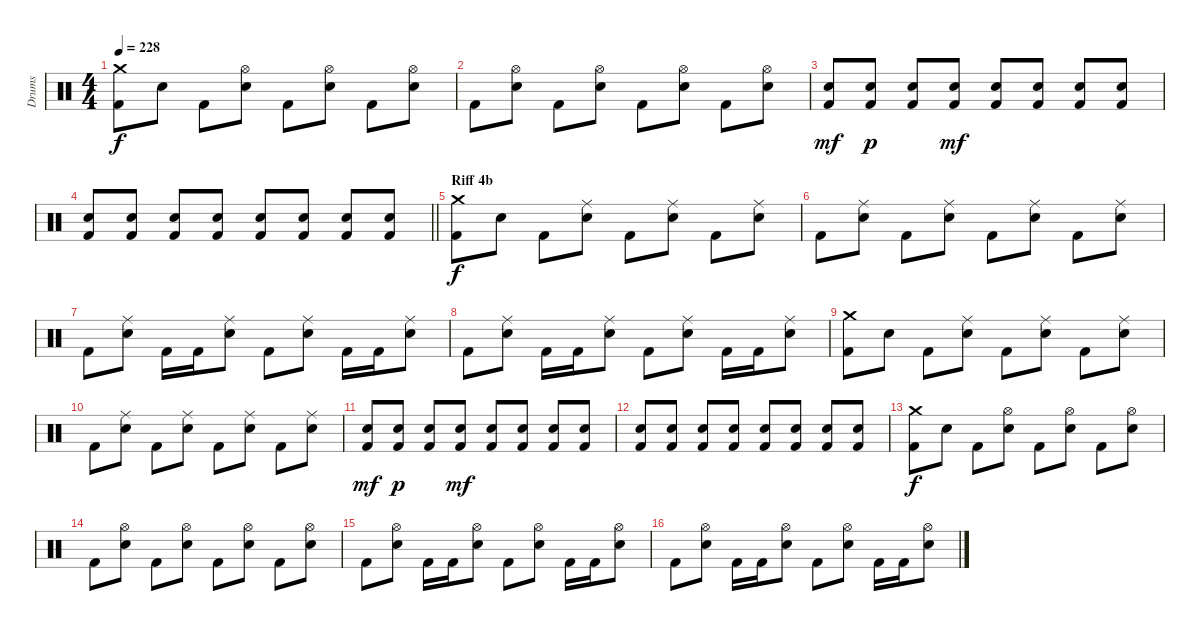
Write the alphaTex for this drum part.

\track ("Drums" "Drums") {instrument percussion}
\staff {score}
\articulation defaults
\ts (4 4)
\tempo 228
\clef neutral
\ks c
("Crash medium (hit)" "Kick (hit) 2").8{dy f} "Electric Snare (hit)".8 "Kick (hit) 2".8 ("Hi-Hat (open)" "Electric Snare (hit)").8 "Kick (hit) 2".8 ("Hi-Hat (open)" "Electric Snare (hit)").8 "Kick (hit) 2".8 ("Hi-Hat (open)" "Electric Snare (hit)").8 |
"Kick (hit) 2".8 ("Hi-Hat (open)" "Electric Snare (hit)").8 "Kick (hit) 2".8 ("Hi-Hat (open)" "Electric Snare (hit)").8 "Kick (hit) 2".8 ("Hi-Hat (open)" "Electric Snare (hit)").8 "Kick (hit) 2".8 ("Hi-Hat (open)" "Electric Snare (hit)").8 |
("Electric Snare (hit)" "Kick (hit) 2").8{dy mf} ("Electric Snare (hit)" "Kick (hit) 2").8{dy p} ("Electric Snare (hit)" "Kick (hit) 2").8 ("Electric Snare (hit)" "Kick (hit) 2").8{dy mf} ("Electric Snare (hit)" "Kick (hit) 2").8 ("Electric Snare (hit)" "Kick (hit) 2").8 ("Electric Snare (hit)" "Kick (hit) 2").8 ("Electric Snare (hit)" "Kick (hit) 2").8 |
\barLineRight lightlight
("Electric Snare (hit)" "Kick (hit) 2").8 ("Electric Snare (hit)" "Kick (hit) 2").8 ("Electric Snare (hit)" "Kick (hit) 2").8 ("Electric Snare (hit)" "Kick (hit) 2").8 ("Electric Snare (hit)" "Kick (hit) 2").8 ("Electric Snare (hit)" "Kick (hit) 2").8 ("Electric Snare (hit)" "Kick (hit) 2").8 ("Electric Snare (hit)" "Kick (hit) 2").8 |
\section ("" "Riff 4b")
("Crash medium (hit)" "Kick (hit) 2").8{dy f} "Electric Snare (hit)".8 "Kick (hit) 2".8 ("Ride (middle)" "Electric Snare (hit)").8 "Kick (hit) 2".8 ("Electric Snare (hit)" "Ride (middle)").8 "Kick (hit) 2".8 ("Electric Snare (hit)" "Ride (middle)").8 |
"Kick (hit) 2".8 ("Electric Snare (hit)" "Ride (middle)").8 "Kick (hit) 2".8 ("Electric Snare (hit)" "Ride (middle)").8 "Kick (hit) 2".8 ("Electric Snare (hit)" "Ride (middle)").8 "Kick (hit) 2".8 ("Electric Snare (hit)" "Ride (middle)").8 |
"Kick (hit) 2".8 ("Electric Snare (hit)" "Ride (middle)").8 "Kick (hit) 2".16 "Kick (hit) 2".16 ("Electric Snare (hit)" "Ride (middle)").8 "Kick (hit) 2".8 ("Electric Snare (hit)" "Ride (middle)").8 "Kick (hit) 2".16 "Kick (hit) 2".16 ("Electric Snare (hit)" "Ride (middle)").8 |
"Kick (hit) 2".8 ("Electric Snare (hit)" "Ride (middle)").8 "Kick (hit) 2".16 "Kick (hit) 2".16 ("Electric Snare (hit)" "Ride (middle)").8 "Kick (hit) 2".8 ("Electric Snare (hit)" "Ride (middle)").8 "Kick (hit) 2".16 "Kick (hit) 2".16 ("Electric Snare (hit)" "Ride (middle)").8 |
("Crash medium (hit)" "Kick (hit) 2").8 "Electric Snare (hit)".8 "Kick (hit) 2".8 ("Ride (middle)" "Electric Snare (hit)").8 "Kick (hit) 2".8 ("Electric Snare (hit)" "Ride (middle)").8 "Kick (hit) 2".8 ("Electric Snare (hit)" "Ride (middle)").8 |
"Kick (hit) 2".8 ("Electric Snare (hit)" "Ride (middle)").8 "Kick (hit) 2".8 ("Electric Snare (hit)" "Ride (middle)").8 "Kick (hit) 2".8 ("Electric Snare (hit)" "Ride (middle)").8 "Kick (hit) 2".8 ("Electric Snare (hit)" "Ride (middle)").8 |
("Electric Snare (hit)" "Kick (hit) 2").8{dy mf} ("Electric Snare (hit)" "Kick (hit) 2").8{dy p} ("Electric Snare (hit)" "Kick (hit) 2").8 ("Electric Snare (hit)" "Kick (hit) 2").8{dy mf} ("Electric Snare (hit)" "Kick (hit) 2").8 ("Electric Snare (hit)" "Kick (hit) 2").8 ("Electric Snare (hit)" "Kick (hit) 2").8 ("Electric Snare (hit)" "Kick (hit) 2").8 |
("Electric Snare (hit)" "Kick (hit) 2").8 ("Electric Snare (hit)" "Kick (hit) 2").8 ("Electric Snare (hit)" "Kick (hit) 2").8 ("Electric Snare (hit)" "Kick (hit) 2").8 ("Electric Snare (hit)" "Kick (hit) 2").8 ("Electric Snare (hit)" "Kick (hit) 2").8 ("Electric Snare (hit)" "Kick (hit) 2").8 ("Electric Snare (hit)" "Kick (hit) 2").8 |
("Crash medium (hit)" "Kick (hit) 2").8{dy f} "Electric Snare (hit)".8 "Kick (hit) 2".8 ("Electric Snare (hit)" "Hi-Hat (open)").8 "Kick (hit) 2".8 ("Electric Snare (hit)" "Hi-Hat (open)").8 "Kick (hit) 2".8 ("Electric Snare (hit)" "Hi-Hat (open)").8 |
"Kick (hit) 2".8 ("Electric Snare (hit)" "Hi-Hat (open)").8 "Kick (hit) 2".8 ("Electric Snare (hit)" "Hi-Hat (open)").8 "Kick (hit) 2".8 ("Electric Snare (hit)" "Hi-Hat (open)").8 "Kick (hit) 2".8 ("Electric Snare (hit)" "Hi-Hat (open)").8 |
"Kick (hit) 2".8 ("Electric Snare (hit)" "Hi-Hat (open)").8 "Kick (hit) 2".16 "Kick (hit) 2".16 ("Electric Snare (hit)" "Hi-Hat (open)").8 "Kick (hit) 2".8 ("Electric Snare (hit)" "Hi-Hat (open)").8 "Kick (hit) 2".16 "Kick (hit) 2".16 ("Electric Snare (hit)" "Hi-Hat (open)").8 |
"Kick (hit) 2".8 ("Electric Snare (hit)" "Hi-Hat (open)").8 "Kick (hit) 2".16 "Kick (hit) 2".16 ("Electric Snare (hit)" "Hi-Hat (open)").8 "Kick (hit) 2".8 ("Electric Snare (hit)" "Hi-Hat (open)").8 "Kick (hit) 2".16 "Kick (hit) 2".16 ("Electric Snare (hit)" "Hi-Hat (open)").8
